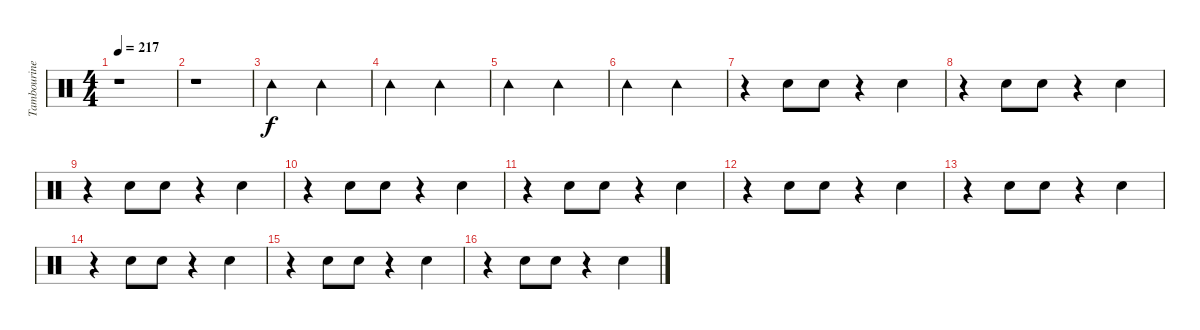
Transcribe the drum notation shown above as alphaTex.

\track ("Tambourine" "Tambourine") {instrument percussion}
\staff {score}
\articulation defaults
\ts (4 4)
\tempo 217
\clef neutral
\ks c
r.1{dy f} |
r.1 |
"Tambourine (hit)".2 "Tambourine (hit)".2 |
"Tambourine (hit)".2 "Tambourine (hit)".2 |
"Tambourine (hit)".2 "Tambourine (hit)".2 |
"Tambourine (hit)".2 "Tambourine (hit)".2 |
r.4 "Hand Clap (hit)".8 "Hand Clap (hit)".8 r.4 "Hand Clap (hit)".4 |
r.4 "Hand Clap (hit)".8 "Hand Clap (hit)".8 r.4 "Hand Clap (hit)".4 |
r.4 "Hand Clap (hit)".8 "Hand Clap (hit)".8 r.4 "Hand Clap (hit)".4 |
r.4 "Hand Clap (hit)".8 "Hand Clap (hit)".8 r.4 "Hand Clap (hit)".4 |
r.4 "Hand Clap (hit)".8 "Hand Clap (hit)".8 r.4 "Hand Clap (hit)".4 |
r.4 "Hand Clap (hit)".8 "Hand Clap (hit)".8 r.4 "Hand Clap (hit)".4 |
r.4 "Hand Clap (hit)".8 "Hand Clap (hit)".8 r.4 "Hand Clap (hit)".4 |
r.4 "Hand Clap (hit)".8 "Hand Clap (hit)".8 r.4 "Hand Clap (hit)".4 |
r.4 "Hand Clap (hit)".8 "Hand Clap (hit)".8 r.4 "Hand Clap (hit)".4 |
r.4 "Hand Clap (hit)".8 "Hand Clap (hit)".8 r.4 "Hand Clap (hit)".4
